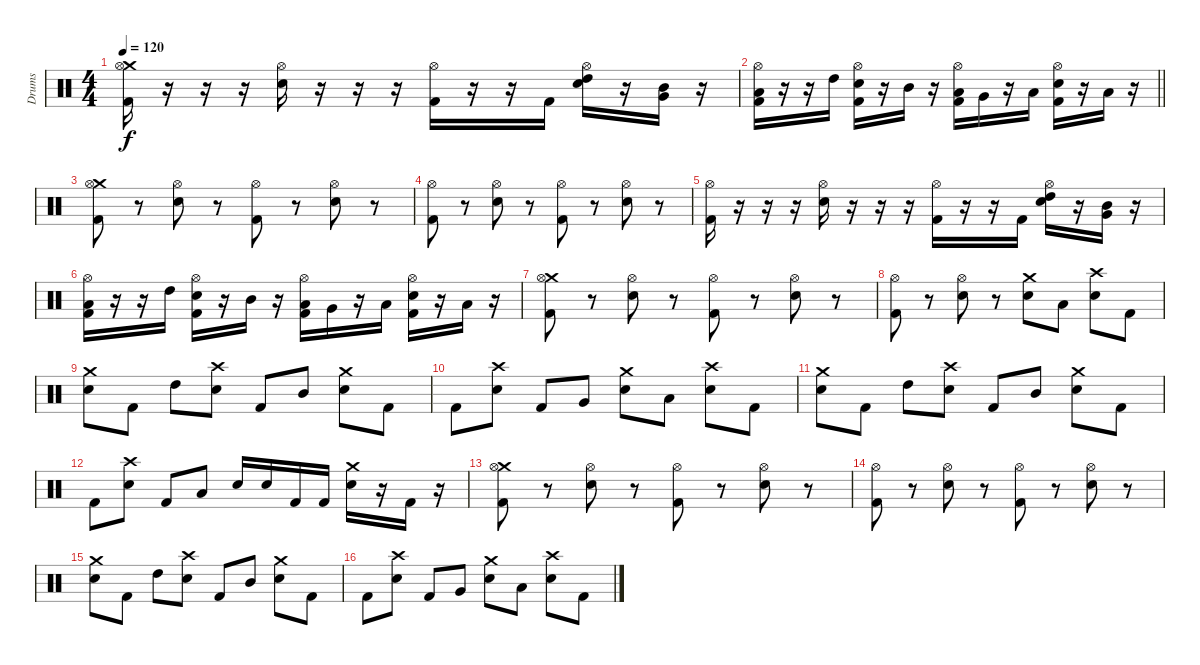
\track ("Drums" "Drums") {instrument percussion}
\staff {score}
\articulation defaults
\ts (4 4)
\tempo 120
\clef neutral
\ks c
("Crash medium (hit)" "Hi-Hat (open)" "Kick (hit) 2").16{dy f} r.16 r.16 r.16 ("Hi-Hat (open)" "Electric Snare (hit)").16 r.16 r.16 r.16 ("Hi-Hat (open)" "Kick (hit) 2").16 r.16 r.16 "Kick (hit) 2".16 ("Hi-Hat (open)" "Electric Snare (hit)" "High Tom (hit)").16 r.16 ("Very Low Tom (hit)" "Mid Tom (hit)").16 r.16 |
\barLineRight lightlight
("Hi-Hat (open)" "Low Tom (hit)" "Kick (hit) 2").16 r.16 r.16 "High Tom (hit)".16 ("Hi-Hat (open)" "Electric Snare (hit)" "Kick (hit) 2").16 r.16 "Mid Tom (hit)".16 r.16 ("Hi-Hat (open)" "Low Tom (hit)" "Kick (hit) 2").16 "Very Low Tom (hit)".16 r.16 "Low Tom (hit)".16 ("Hi-Hat (open)" "Electric Snare (hit)" "Kick (hit) 2").16 r.16 "Low Floor Tom (hit)".16 r.16 |
\section ("" "")
("Crash medium (hit)" "Hi-Hat (open)" "Kick (hit) 2").8 r.8 ("Hi-Hat (open)" "Electric Snare (hit)").8 r.8 ("Hi-Hat (open)" "Kick (hit) 2").8 r.8 ("Hi-Hat (open)" "Electric Snare (hit)").8 r.8 |
("Hi-Hat (open)" "Kick (hit) 2").8 r.8 ("Hi-Hat (open)" "Electric Snare (hit)").8 r.8 ("Hi-Hat (open)" "Kick (hit) 2").8 r.8 ("Hi-Hat (open)" "Electric Snare (hit)").8 r.8 |
("Hi-Hat (open)" "Kick (hit) 2").16 r.16 r.16 r.16 ("Hi-Hat (open)" "Electric Snare (hit)").16 r.16 r.16 r.16 ("Hi-Hat (open)" "Kick (hit) 2").16 r.16 r.16 "Kick (hit) 2".16 ("Hi-Hat (open)" "Electric Snare (hit)" "High Tom (hit)").16 r.16 ("Very Low Tom (hit)" "Mid Tom (hit)").16 r.16 |
("Hi-Hat (open)" "Low Tom (hit)" "Kick (hit) 2").16 r.16 r.16 "High Tom (hit)".16 ("Hi-Hat (open)" "Electric Snare (hit)" "Kick (hit) 2").16 r.16 "Mid Tom (hit)".16 r.16 ("Hi-Hat (open)" "Low Tom (hit)" "Kick (hit) 2").16 "Very Low Tom (hit)".16 r.16 "Low Tom (hit)".16 ("Hi-Hat (open)" "Electric Snare (hit)" "Kick (hit) 2").16 r.16 "Low Floor Tom (hit)".16 r.16 |
("Crash medium (hit)" "Hi-Hat (open)" "Kick (hit) 2").8 r.8 ("Hi-Hat (open)" "Electric Snare (hit)").8 r.8 ("Hi-Hat (open)" "Kick (hit) 2").8 r.8 ("Hi-Hat (open)" "Electric Snare (hit)").8 r.8 |
("Hi-Hat (open)" "Kick (hit) 2").8 r.8 ("Hi-Hat (open)" "Electric Snare (hit)").8 r.8 ("Crash medium (hit)" "Electric Snare (hit)").8 "Low Floor Tom (hit)".8 ("Crash high (hit)" "Electric Snare (hit)").8 "Kick (hit) 2".8 |
("Crash medium (hit)" "Electric Snare (hit)").8 "Kick (hit) 2".8 "High Tom (hit)".8 ("Crash high (hit)" "Electric Snare (hit)").8 "Kick (hit) 2".8 "Mid Tom (hit)".8 ("Crash medium (hit)" "Electric Snare (hit)").8 "Kick (hit) 2".8 |
"Kick (hit) 2".8 ("Crash high (hit)" "Electric Snare (hit)").8 "Kick (hit) 2".8 "Very Low Tom (hit)".8 ("Crash medium (hit)" "Electric Snare (hit)").8 "Low Floor Tom (hit)".8 ("Crash high (hit)" "Electric Snare (hit)").8 "Kick (hit) 2".8 |
("Crash medium (hit)" "Electric Snare (hit)").8 "Kick (hit) 2".8 "High Tom (hit)".8 ("Crash high (hit)" "Electric Snare (hit)").8 "Kick (hit) 2".8 "Mid Tom (hit)".8 ("Crash medium (hit)" "Electric Snare (hit)").8 "Kick (hit) 2".8 |
"Kick (hit) 2".8 ("Crash high (hit)" "Electric Snare (hit)").8 "Kick (hit) 2".8 "Low Floor Tom (hit)".8 "Electric Snare (hit)".16 "Electric Snare (hit)".16 "Kick (hit) 2".16 "Kick (hit) 2".16 ("Crash medium (hit)" "Electric Snare (hit)").16 r.16 "Kick (hit) 2".16 r.16 |
("Crash medium (hit)" "Hi-Hat (open)" "Kick (hit) 2").8 r.8 ("Hi-Hat (open)" "Electric Snare (hit)").8 r.8 ("Hi-Hat (open)" "Kick (hit) 2").8 r.8 ("Hi-Hat (open)" "Electric Snare (hit)").8 r.8 |
("Hi-Hat (open)" "Kick (hit) 2").8 r.8 ("Hi-Hat (open)" "Electric Snare (hit)").8 r.8 ("Hi-Hat (open)" "Kick (hit) 2").8 r.8 ("Hi-Hat (open)" "Electric Snare (hit)").8 r.8 |
("Crash medium (hit)" "Electric Snare (hit)").8 "Kick (hit) 2".8 "High Tom (hit)".8 ("Crash high (hit)" "Electric Snare (hit)").8 "Kick (hit) 2".8 "Mid Tom (hit)".8 ("Crash medium (hit)" "Electric Snare (hit)").8 "Kick (hit) 2".8 |
"Kick (hit) 2".8 ("Crash high (hit)" "Electric Snare (hit)").8 "Kick (hit) 2".8 "Very Low Tom (hit)".8 ("Crash medium (hit)" "Electric Snare (hit)").8 "Low Floor Tom (hit)".8 ("Crash high (hit)" "Electric Snare (hit)").8 "Kick (hit) 2".8
